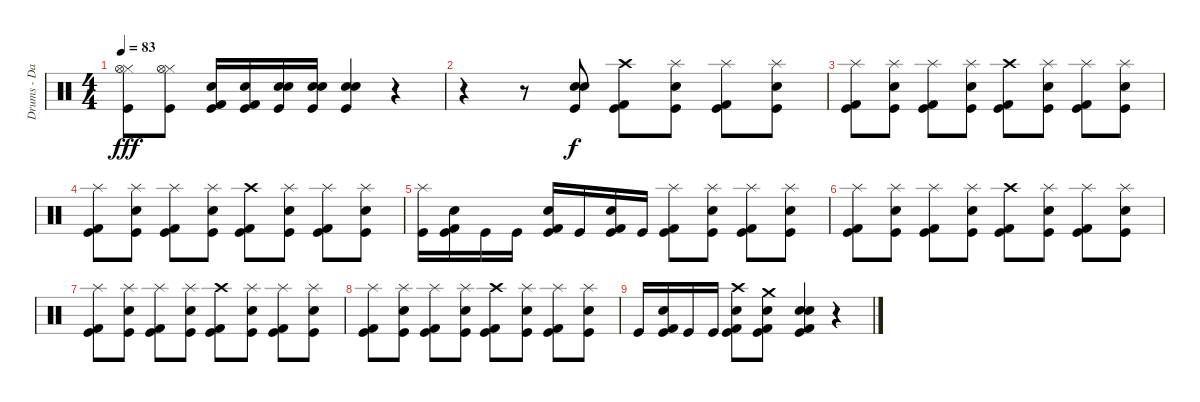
\track ("Drums - Daniel Zimmermann" "Drums - Da") {instrument percussion}
\staff {score}
\articulation defaults
\ts (4 4)
\tempo 83
\clef neutral
\ks c
("Kick (hit)" "Hi-Hat (closed)" "Hi-Hat (open)").8{dy fff} ("Kick (hit)" "Hi-Hat (closed)" "Hi-Hat (open)").8 ("Kick (hit)" "Kick (hit) 2" "Snare (hit) 2").16 ("Kick (hit)" "Kick (hit) 2" "Snare (hit) 2").16 ("Kick (hit)" "Snare (hit) 2" "Electric Snare (hit)").16 ("Kick (hit)" "Snare (hit) 2" "Electric Snare (hit)").16 ("Kick (hit)" "Snare (hit) 2" "Electric Snare (hit)").4 r.4 |
r.4 r.8 ("Kick (hit)" "Snare (hit) 2" "Electric Snare (hit)").8{dy f} ("Kick (hit)" "Kick (hit) 2" "Crash high (hit)").8 ("Kick (hit)" "Electric Snare (hit)" "Splash (hit)").8 ("Kick (hit)" "Kick (hit) 2" "Splash (hit)").8 ("Kick (hit)" "Electric Snare (hit)" "Splash (hit)").8 |
("Kick (hit)" "Kick (hit) 2" "Splash (hit)").8 ("Kick (hit)" "Electric Snare (hit)" "Splash (hit)").8 ("Kick (hit)" "Kick (hit) 2" "Splash (hit)").8 ("Kick (hit)" "Electric Snare (hit)" "Splash (hit)").8 ("Kick (hit)" "Kick (hit) 2" "Crash high (hit)").8 ("Kick (hit)" "Electric Snare (hit)" "Splash (hit)").8 ("Kick (hit)" "Kick (hit) 2" "Splash (hit)").8 ("Kick (hit)" "Electric Snare (hit)" "Splash (hit)").8 |
("Kick (hit)" "Kick (hit) 2" "Splash (hit)").8 ("Kick (hit)" "Electric Snare (hit)" "Splash (hit)").8 ("Kick (hit)" "Kick (hit) 2" "Splash (hit)").8 ("Kick (hit)" "Electric Snare (hit)" "Splash (hit)").8 ("Kick (hit)" "Kick (hit) 2" "Crash high (hit)").8 ("Kick (hit)" "Electric Snare (hit)" "Splash (hit)").8 ("Kick (hit)" "Kick (hit) 2" "Splash (hit)").8 ("Kick (hit)" "Electric Snare (hit)" "Splash (hit)").8 |
("Kick (hit)" "Splash (hit)").16 ("Kick (hit)" "Kick (hit) 2" "Electric Snare (hit)").16 "Kick (hit)".16 "Kick (hit)".16 ("Kick (hit)" "Kick (hit) 2" "Electric Snare (hit)").16 "Kick (hit)".16 ("Kick (hit)" "Kick (hit) 2" "Electric Snare (hit)").16 "Kick (hit)".16 ("Kick (hit)" "Kick (hit) 2" "Splash (hit)").8 ("Kick (hit)" "Electric Snare (hit)" "Splash (hit)").8 ("Kick (hit)" "Kick (hit) 2" "Splash (hit)").8 ("Kick (hit)" "Electric Snare (hit)" "Splash (hit)").8 |
("Kick (hit)" "Kick (hit) 2" "Splash (hit)").8 ("Kick (hit)" "Electric Snare (hit)" "Splash (hit)").8 ("Kick (hit)" "Kick (hit) 2" "Splash (hit)").8 ("Kick (hit)" "Electric Snare (hit)" "Splash (hit)").8 ("Kick (hit)" "Kick (hit) 2" "Crash high (hit)").8 ("Kick (hit)" "Electric Snare (hit)" "Splash (hit)").8 ("Kick (hit)" "Kick (hit) 2" "Splash (hit)").8 ("Kick (hit)" "Electric Snare (hit)" "Splash (hit)").8 |
("Kick (hit)" "Kick (hit) 2" "Splash (hit)").8 ("Kick (hit)" "Electric Snare (hit)" "Splash (hit)").8 ("Kick (hit)" "Kick (hit) 2" "Splash (hit)").8 ("Kick (hit)" "Electric Snare (hit)" "Splash (hit)").8 ("Kick (hit)" "Kick (hit) 2" "Crash high (hit)").8 ("Kick (hit)" "Electric Snare (hit)" "Splash (hit)").8 ("Kick (hit)" "Kick (hit) 2" "Splash (hit)").8 ("Kick (hit)" "Electric Snare (hit)" "Splash (hit)").8 |
("Kick (hit)" "Kick (hit) 2" "Splash (hit)").8 ("Kick (hit)" "Electric Snare (hit)" "Splash (hit)").8 ("Kick (hit)" "Kick (hit) 2" "Splash (hit)").8 ("Kick (hit)" "Electric Snare (hit)" "Splash (hit)").8 ("Kick (hit)" "Kick (hit) 2" "Crash high (hit)").8 ("Kick (hit)" "Electric Snare (hit)" "Splash (hit)").8 ("Kick (hit)" "Kick (hit) 2" "Splash (hit)").8 ("Kick (hit)" "Electric Snare (hit)" "Splash (hit)").8 |
"Kick (hit)".16 ("Kick (hit)" "Kick (hit) 2" "Electric Snare (hit)").16 "Kick (hit)".16 "Kick (hit)".16 ("Kick (hit)" "Kick (hit) 2" "Electric Snare (hit)" "Crash high (hit)").8 ("Kick (hit)" "Kick (hit) 2" "Electric Snare (hit)" "Crash medium (hit)").8 ("Kick (hit)" "Kick (hit) 2" "Snare (hit) 2" "Electric Snare (hit)").4 r.4
